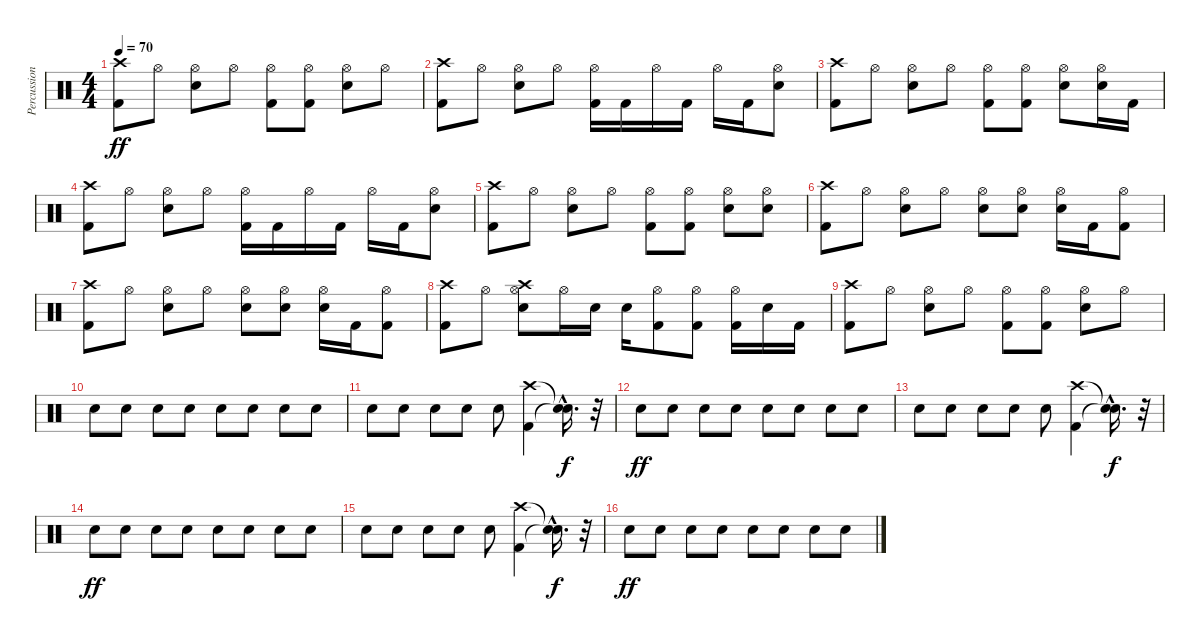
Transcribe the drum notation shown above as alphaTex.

\track ("Percussions" "Percussion") {instrument percussion}
\staff {score}
\articulation defaults
\ts (4 4)
\tempo 70
\clef neutral
\ks c
("Kick (hit) 2" "Crash high (hit)").8{dy ff} "Hi-Hat (open)".8 ("Snare (hit) 2" "Hi-Hat (open)").8 "Hi-Hat (open)".8 ("Kick (hit) 2" "Hi-Hat (open)").8 ("Kick (hit) 2" "Hi-Hat (open)").8 ("Snare (hit) 2" "Hi-Hat (open)").8 "Hi-Hat (open)".8 |
("Kick (hit) 2" "Crash high (hit)").8 "Hi-Hat (open)".8 ("Snare (hit) 2" "Hi-Hat (open)").8 "Hi-Hat (open)".8 ("Kick (hit) 2" "Hi-Hat (open)").16 "Kick (hit) 2".16 "Hi-Hat (open)".16 "Kick (hit) 2".16 "Hi-Hat (open)".16 "Kick (hit) 2".16 ("Snare (hit) 2" "Hi-Hat (open)").8 |
("Kick (hit) 2" "Crash high (hit)").8 "Hi-Hat (open)".8 ("Snare (hit) 2" "Hi-Hat (open)").8 "Hi-Hat (open)".8 ("Kick (hit) 2" "Hi-Hat (open)").8 ("Kick (hit) 2" "Hi-Hat (open)").8 ("Snare (hit) 2" "Hi-Hat (open)").8 ("Snare (hit) 2" "Hi-Hat (open)").16 "Kick (hit) 2".16 |
("Kick (hit) 2" "Crash high (hit)").8 "Hi-Hat (open)".8 ("Snare (hit) 2" "Hi-Hat (open)").8 "Hi-Hat (open)".8 ("Kick (hit) 2" "Hi-Hat (open)").16 "Kick (hit) 2".16 "Hi-Hat (open)".16 "Kick (hit) 2".16 "Hi-Hat (open)".16 "Kick (hit) 2".16 ("Snare (hit) 2" "Hi-Hat (open)").8 |
("Kick (hit) 2" "Crash high (hit)").8 "Hi-Hat (open)".8 ("Snare (hit) 2" "Hi-Hat (open)").8 "Hi-Hat (open)".8 ("Kick (hit) 2" "Hi-Hat (open)").8 ("Kick (hit) 2" "Hi-Hat (open)").8 ("Snare (hit) 2" "Hi-Hat (open)").8 ("Snare (hit) 2" "Hi-Hat (open)").8 |
("Kick (hit) 2" "Crash high (hit)").8 "Hi-Hat (open)".8 ("Snare (hit) 2" "Hi-Hat (open)").8 "Hi-Hat (open)".8 ("Snare (hit) 2" "Hi-Hat (open)").8 ("Snare (hit) 2" "Hi-Hat (open)").8 ("Snare (hit) 2" "Hi-Hat (open)").16 "Kick (hit) 2".16 ("Kick (hit) 2" "Hi-Hat (open)").8 |
("Kick (hit) 2" "Crash high (hit)").8 "Hi-Hat (open)".8 ("Snare (hit) 2" "Hi-Hat (open)").8 "Hi-Hat (open)".8 ("Snare (hit) 2" "Hi-Hat (open)").8 ("Snare (hit) 2" "Hi-Hat (open)").8 ("Snare (hit) 2" "Hi-Hat (open)").16 "Kick (hit) 2".16 ("Kick (hit) 2" "Hi-Hat (open)").8 |
("Kick (hit) 2" "Crash high (hit)").8 "Hi-Hat (open)".8 ("Snare (hit) 2" "Hi-Hat (open)" "Crash high (hit)").8 "Hi-Hat (open)".16 "Snare (hit) 2".16 "Snare (hit) 2".16 ("Kick (hit) 2" "Hi-Hat (open)").8 ("Kick (hit) 2" "Hi-Hat (open)").8 ("Kick (hit) 2" "Hi-Hat (open)").16 "Snare (hit) 2".16 "Kick (hit) 2".16 |
("Kick (hit) 2" "Crash high (hit)").8 "Hi-Hat (open)".8 ("Snare (hit) 2" "Hi-Hat (open)").8 "Hi-Hat (open)".8 ("Kick (hit) 2" "Hi-Hat (open)").8 ("Kick (hit) 2" "Hi-Hat (open)").8 ("Snare (hit) 2" "Hi-Hat (open)").8 "Hi-Hat (open)".8 |
"Snare (hit) 2".8 "Snare (hit) 2".8 "Snare (hit) 2".8 "Snare (hit) 2".8 "Snare (hit) 2".8 "Snare (hit) 2".8 "Snare (hit) 2".8 "Snare (hit) 2".8 |
"Snare (hit) 2".8 "Snare (hit) 2".8 "Snare (hit) 2".8 "Snare (hit) 2".8 "Snare (hit) 2".8 ("Kick (hit) 2" "Crash high (hit)").4 ("Snare (hit)"{hac t} "Snare (hit)"{hac t}).16{d dy f} r.32 |
"Snare (hit) 2".8{dy ff} "Snare (hit) 2".8 "Snare (hit) 2".8 "Snare (hit) 2".8 "Snare (hit) 2".8 "Snare (hit) 2".8 "Snare (hit) 2".8 "Snare (hit) 2".8 |
"Snare (hit) 2".8 "Snare (hit) 2".8 "Snare (hit) 2".8 "Snare (hit) 2".8 "Snare (hit) 2".8 ("Kick (hit) 2" "Crash high (hit)").4 ("Snare (hit)"{hac t} "Snare (hit)"{hac t}).16{d dy f} r.32 |
"Snare (hit) 2".8{dy ff} "Snare (hit) 2".8 "Snare (hit) 2".8 "Snare (hit) 2".8 "Snare (hit) 2".8 "Snare (hit) 2".8 "Snare (hit) 2".8 "Snare (hit) 2".8 |
"Snare (hit) 2".8 "Snare (hit) 2".8 "Snare (hit) 2".8 "Snare (hit) 2".8 "Snare (hit) 2".8 ("Kick (hit) 2" "Crash high (hit)").4 ("Snare (hit)"{hac t} "Snare (hit)"{hac t}).16{d dy f} r.32 |
"Snare (hit) 2".8{dy ff} "Snare (hit) 2".8 "Snare (hit) 2".8 "Snare (hit) 2".8 "Snare (hit) 2".8 "Snare (hit) 2".8 "Snare (hit) 2".8 "Snare (hit) 2".8
